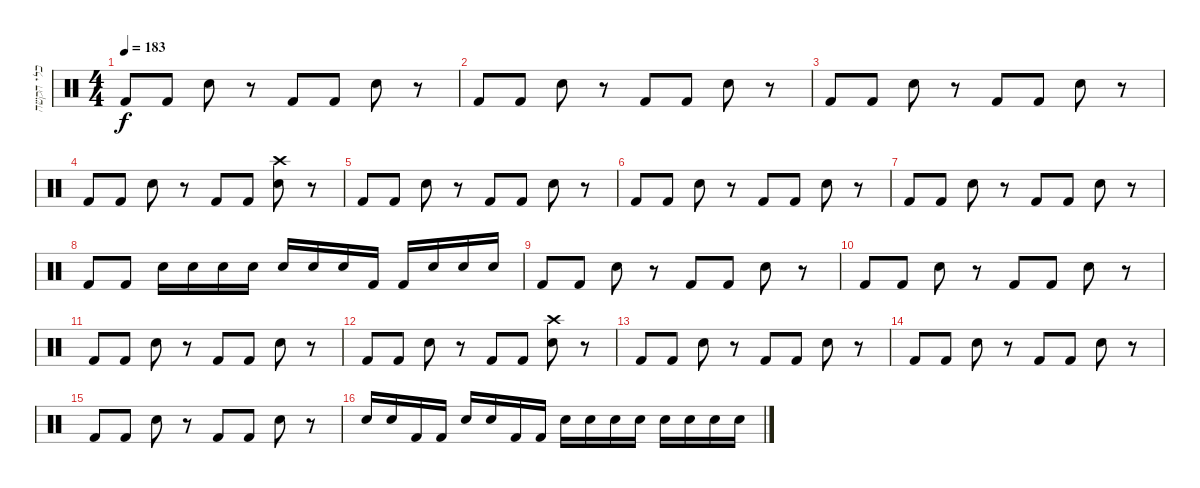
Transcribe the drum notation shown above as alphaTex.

\track ("כלי הקשה" "כלי הקשה") {instrument percussion}
\staff {score}
\articulation defaults
\ts (4 4)
\tempo 183
\clef neutral
\ks c "Kick (hit) 2".8{dy f} "Kick (hit) 2".8 "Snare (hit) 2".8
r.8 "Kick (hit) 2".8 "Kick (hit) 2".8 "Snare (hit) 2".8 r.8 |
"Kick (hit) 2".8 "Kick (hit) 2".8 "Snare (hit) 2".8 r.8 "Kick (hit) 2".8 "Kick (hit) 2".8 "Snare (hit) 2".8 r.8 |
"Kick (hit) 2".8 "Kick (hit) 2".8 "Snare (hit) 2".8 r.8 "Kick (hit) 2".8 "Kick (hit) 2".8 "Snare (hit) 2".8 r.8 |
"Kick (hit) 2".8 "Kick (hit) 2".8 "Snare (hit) 2".8 r.8 "Kick (hit) 2".8 "Kick (hit) 2".8 ("Crash high (hit)" "Snare (hit) 2").8 r.8 |
"Kick (hit) 2".8 "Kick (hit) 2".8 "Snare (hit) 2".8 r.8 "Kick (hit) 2".8 "Kick (hit) 2".8 "Snare (hit) 2".8 r.8 |
"Kick (hit) 2".8 "Kick (hit) 2".8 "Snare (hit) 2".8 r.8 "Kick (hit) 2".8 "Kick (hit) 2".8 "Snare (hit) 2".8 r.8 |
"Kick (hit) 2".8 "Kick (hit) 2".8 "Snare (hit) 2".8 r.8 "Kick (hit) 2".8 "Kick (hit) 2".8 "Snare (hit) 2".8 r.8 |
"Kick (hit) 2".8 "Kick (hit) 2".8 "Snare (hit) 2".16 "Snare (hit) 2".16 "Snare (hit) 2".16 "Snare (hit) 2".16 "Snare (hit) 2".16 "Snare (hit) 2".16 "Snare (hit) 2".16 "Kick (hit) 2".16 "Kick (hit) 2".16 "Snare (hit) 2".16 "Snare (hit) 2".16 "Snare (hit) 2".16 |
"Kick (hit) 2".8 "Kick (hit) 2".8 "Snare (hit) 2".8 r.8 "Kick (hit) 2".8 "Kick (hit) 2".8 "Snare (hit) 2".8 r.8 |
"Kick (hit) 2".8 "Kick (hit) 2".8 "Snare (hit) 2".8 r.8 "Kick (hit) 2".8 "Kick (hit) 2".8 "Snare (hit) 2".8 r.8 |
"Kick (hit) 2".8 "Kick (hit) 2".8 "Snare (hit) 2".8 r.8 "Kick (hit) 2".8 "Kick (hit) 2".8 "Snare (hit) 2".8 r.8 |
"Kick (hit) 2".8 "Kick (hit) 2".8 "Snare (hit) 2".8 r.8 "Kick (hit) 2".8 "Kick (hit) 2".8 ("Crash high (hit)" "Snare (hit) 2").8 r.8 |
"Kick (hit) 2".8 "Kick (hit) 2".8 "Snare (hit) 2".8 r.8 "Kick (hit) 2".8 "Kick (hit) 2".8 "Snare (hit) 2".8 r.8 |
"Kick (hit) 2".8 "Kick (hit) 2".8 "Snare (hit) 2".8 r.8 "Kick (hit) 2".8 "Kick (hit) 2".8 "Snare (hit) 2".8 r.8 |
"Kick (hit) 2".8 "Kick (hit) 2".8 "Snare (hit) 2".8 r.8 "Kick (hit) 2".8 "Kick (hit) 2".8 "Snare (hit) 2".8 r.8 |
"Snare (hit) 2".16 "Snare (hit) 2".16 "Kick (hit) 2".16 "Kick (hit) 2".16 "Snare (hit) 2".16 "Snare (hit) 2".16 "Kick (hit) 2".16 "Kick (hit) 2".16 "Snare (hit) 2".16 "Snare (hit) 2".16 "Snare (hit) 2".16 "Snare (hit) 2".16 "Snare (hit) 2".16 "Snare (hit) 2".16 "Snare (hit) 2".16 "Snare (hit) 2".16
